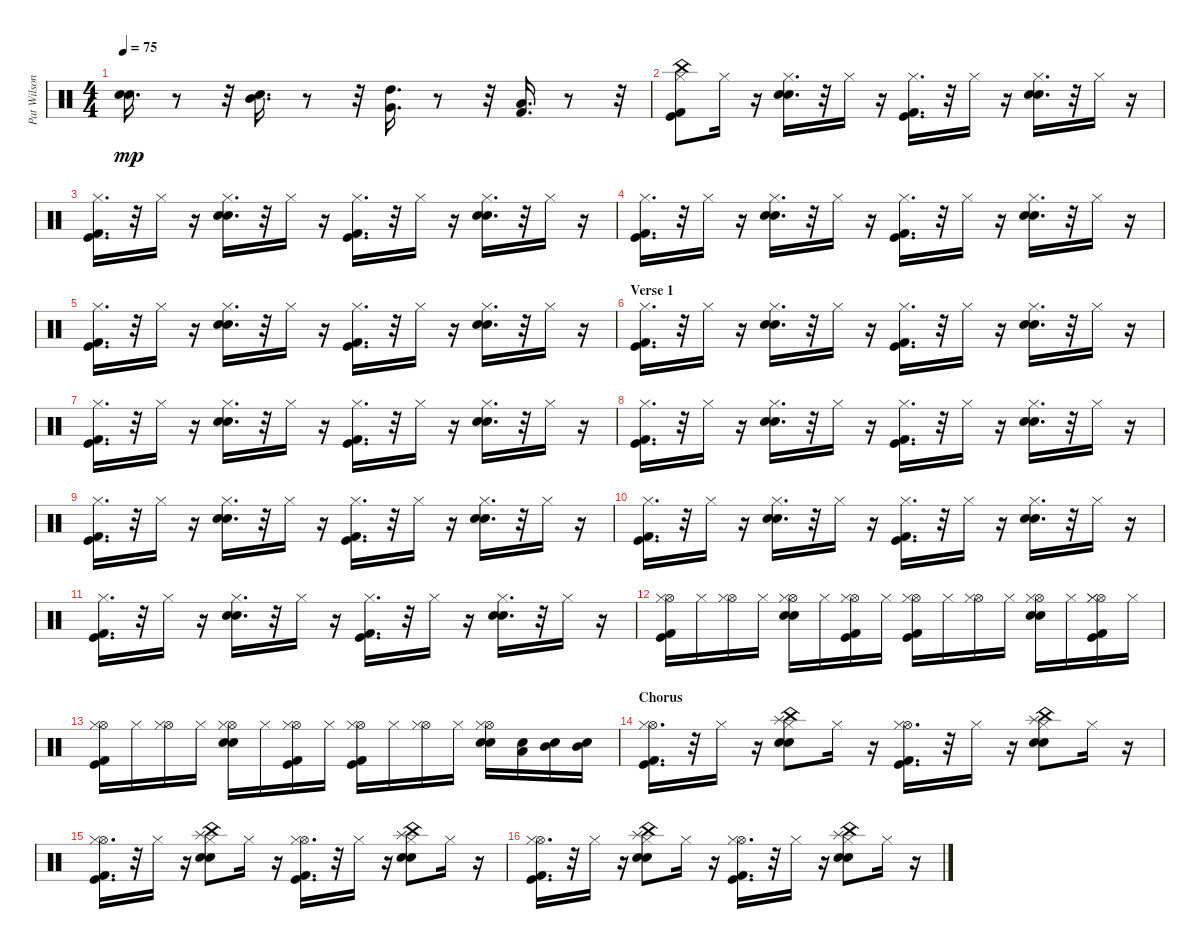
\track ("Pat Wilson - Drums" "Pat Wilson") {instrument percussion}
\staff {score}
\articulation defaults
\ts (4 4)
\tempo 75
\clef neutral
\ks c
("Snare (hit) 2" "Electric Snare (hit)").16{d dy mp} r.8 r.32 ("Mid Tom (hit)" "Electric Snare (hit)").16{d} r.8 r.32 ("Very Low Tom (hit)" "High Tom (hit)").16{d} r.8 r.32 ("Low Tom (hit)" "Kick (hit) 2").16{d} r.8 r.32 |
("China (hit)" "Kick (hit) 2" "Kick (hit)" "Hi-Hat (closed)").8 "Hi-Hat (closed)".16 r.16 ("Snare (hit) 2" "Electric Snare (hit)" "Hi-Hat (closed)").16{d} r.32 "Hi-Hat (closed)".16 r.16 ("Kick (hit) 2" "Kick (hit)" "Hi-Hat (closed)").16{d} r.32 "Hi-Hat (closed)".16 r.16 ("Snare (hit) 2" "Electric Snare (hit)" "Hi-Hat (closed)").16{d} r.32 "Hi-Hat (closed)".16 r.16 |
("Kick (hit) 2" "Kick (hit)" "Hi-Hat (closed)").16{d} r.32 "Hi-Hat (closed)".16 r.16 ("Snare (hit) 2" "Electric Snare (hit)" "Hi-Hat (closed)").16{d} r.32 "Hi-Hat (closed)".16 r.16 ("Kick (hit) 2" "Kick (hit)" "Hi-Hat (closed)").16{d} r.32 "Hi-Hat (closed)".16 r.16 ("Snare (hit) 2" "Electric Snare (hit)" "Hi-Hat (closed)").16{d} r.32 "Hi-Hat (closed)".16 r.16 |
("Kick (hit) 2" "Kick (hit)" "Hi-Hat (closed)").16{d} r.32 "Hi-Hat (closed)".16 r.16 ("Snare (hit) 2" "Electric Snare (hit)" "Hi-Hat (closed)").16{d} r.32 "Hi-Hat (closed)".16 r.16 ("Kick (hit) 2" "Kick (hit)" "Hi-Hat (closed)").16{d} r.32 "Hi-Hat (closed)".16 r.16 ("Snare (hit) 2" "Electric Snare (hit)" "Hi-Hat (closed)").16{d} r.32 "Hi-Hat (closed)".16 r.16 |
("Kick (hit) 2" "Kick (hit)" "Hi-Hat (closed)").16{d} r.32 "Hi-Hat (closed)".16 r.16 ("Snare (hit) 2" "Electric Snare (hit)" "Hi-Hat (closed)").16{d} r.32 "Hi-Hat (closed)".16 r.16 ("Kick (hit) 2" "Kick (hit)" "Hi-Hat (closed)").16{d} r.32 "Hi-Hat (closed)".16 r.16 ("Snare (hit) 2" "Electric Snare (hit)" "Hi-Hat (closed)").16{d} r.32 "Hi-Hat (closed)".16 r.16 |
\section ("" "Verse 1")
("Kick (hit) 2" "Kick (hit)" "Hi-Hat (closed)").16{d} r.32 "Hi-Hat (closed)".16 r.16 ("Snare (hit) 2" "Electric Snare (hit)" "Hi-Hat (closed)").16{d} r.32 "Hi-Hat (closed)".16 r.16 ("Kick (hit) 2" "Kick (hit)" "Hi-Hat (closed)").16{d} r.32 "Hi-Hat (closed)".16 r.16 ("Snare (hit) 2" "Electric Snare (hit)" "Hi-Hat (closed)").16{d} r.32 "Hi-Hat (closed)".16 r.16 |
("Kick (hit) 2" "Kick (hit)" "Hi-Hat (closed)").16{d} r.32 "Hi-Hat (closed)".16 r.16 ("Snare (hit) 2" "Electric Snare (hit)" "Hi-Hat (closed)").16{d} r.32 "Hi-Hat (closed)".16 r.16 ("Kick (hit) 2" "Kick (hit)" "Hi-Hat (closed)").16{d} r.32 "Hi-Hat (closed)".16 r.16 ("Snare (hit) 2" "Electric Snare (hit)" "Hi-Hat (closed)").16{d} r.32 "Hi-Hat (closed)".16 r.16 |
("Kick (hit) 2" "Kick (hit)" "Hi-Hat (closed)").16{d} r.32 "Hi-Hat (closed)".16 r.16 ("Snare (hit) 2" "Electric Snare (hit)" "Hi-Hat (closed)").16{d} r.32 "Hi-Hat (closed)".16 r.16 ("Kick (hit) 2" "Kick (hit)" "Hi-Hat (closed)").16{d} r.32 "Hi-Hat (closed)".16 r.16 ("Snare (hit) 2" "Electric Snare (hit)" "Hi-Hat (closed)").16{d} r.32 "Hi-Hat (closed)".16 r.16 |
("Kick (hit) 2" "Kick (hit)" "Hi-Hat (closed)").16{d} r.32 "Hi-Hat (closed)".16 r.16 ("Snare (hit) 2" "Electric Snare (hit)" "Hi-Hat (closed)").16{d} r.32 "Hi-Hat (closed)".16 r.16 ("Kick (hit) 2" "Kick (hit)" "Hi-Hat (closed)").16{d} r.32 "Hi-Hat (closed)".16 r.16 ("Snare (hit) 2" "Electric Snare (hit)" "Hi-Hat (closed)").16{d} r.32 "Hi-Hat (closed)".16 r.16 |
("Kick (hit) 2" "Kick (hit)" "Hi-Hat (closed)").16{d} r.32 "Hi-Hat (closed)".16 r.16 ("Snare (hit) 2" "Electric Snare (hit)" "Hi-Hat (closed)").16{d} r.32 "Hi-Hat (closed)".16 r.16 ("Kick (hit) 2" "Kick (hit)" "Hi-Hat (closed)").16{d} r.32 "Hi-Hat (closed)".16 r.16 ("Snare (hit) 2" "Electric Snare (hit)" "Hi-Hat (closed)").16{d} r.32 "Hi-Hat (closed)".16 r.16 |
("Kick (hit) 2" "Kick (hit)" "Hi-Hat (closed)").16{d} r.32 "Hi-Hat (closed)".16 r.16 ("Snare (hit) 2" "Electric Snare (hit)" "Hi-Hat (closed)").16{d} r.32 "Hi-Hat (closed)".16 r.16 ("Kick (hit) 2" "Kick (hit)" "Hi-Hat (closed)").16{d} r.32 "Hi-Hat (closed)".16 r.16 ("Snare (hit) 2" "Electric Snare (hit)" "Hi-Hat (closed)").16{d} r.32 "Hi-Hat (closed)".16 r.16 |
("Kick (hit) 2" "Kick (hit)" "Hi-Hat (open)" "Hi-Hat (closed)").16 "Hi-Hat (closed)".16 ("Hi-Hat (open)" "Hi-Hat (closed)").16 "Hi-Hat (closed)".16 ("Snare (hit) 2" "Electric Snare (hit)" "Hi-Hat (open)" "Hi-Hat (closed)").16 "Hi-Hat (closed)".16 ("Kick (hit) 2" "Kick (hit)" "Hi-Hat (open)" "Hi-Hat (closed)").16 "Hi-Hat (closed)".16 ("Kick (hit) 2" "Kick (hit)" "Hi-Hat (open)" "Hi-Hat (closed)").16 "Hi-Hat (closed)".16 ("Hi-Hat (open)" "Hi-Hat (closed)").16 "Hi-Hat (closed)".16 ("Snare (hit) 2" "Electric Snare (hit)" "Hi-Hat (open)" "Hi-Hat (closed)").16 "Hi-Hat (closed)".16 ("Kick (hit) 2" "Kick (hit)" "Hi-Hat (open)" "Hi-Hat (closed)" "Hi-Hat (closed)").16 "Hi-Hat (closed)".16 |
("Kick (hit) 2" "Kick (hit)" "Hi-Hat (open)" "Hi-Hat (closed)").16 "Hi-Hat (closed)".16 ("Hi-Hat (open)" "Hi-Hat (closed)").16 "Hi-Hat (closed)".16 ("Snare (hit) 2" "Electric Snare (hit)" "Hi-Hat (open)" "Hi-Hat (closed)").16 "Hi-Hat (closed)".16 ("Kick (hit) 2" "Kick (hit)" "Hi-Hat (open)" "Hi-Hat (closed)").16 "Hi-Hat (closed)".16 ("Kick (hit) 2" "Kick (hit)" "Hi-Hat (open)" "Hi-Hat (closed)").16 "Hi-Hat (closed)".16 ("Hi-Hat (open)" "Hi-Hat (closed)").16 "Hi-Hat (closed)".16 ("Electric Snare (hit)" "Snare (hit) 2" "Hi-Hat (open)" "Hi-Hat (closed)").16 ("Low Tom (hit)" "Electric Snare (hit)").16 ("Mid Tom (hit)" "Electric Snare (hit)").16 ("Mid Tom (hit)" "Electric Snare (hit)").16 |
\section ("" "Chorus")
("Hi-Hat (open)" "Kick (hit) 2" "Kick (hit)" "Hi-Hat (closed)").16{d} r.32 "Hi-Hat (closed)".16 r.16 ("Splash (hit)" "China (hit)" "Snare (hit) 2" "Electric Snare (hit)" "Hi-Hat (closed)").8 "Hi-Hat (closed)".16 r.16 ("Hi-Hat (open)" "Kick (hit) 2" "Kick (hit)" "Hi-Hat (closed)").16{d} r.32 "Hi-Hat (closed)".16 r.16 ("Splash (hit)" "China (hit)" "Snare (hit) 2" "Electric Snare (hit)" "Hi-Hat (closed)").8 "Hi-Hat (closed)".16 r.16 |
("Hi-Hat (open)" "Kick (hit) 2" "Kick (hit)" "Hi-Hat (closed)").16{d} r.32 "Hi-Hat (closed)".16 r.16 ("Splash (hit)" "China (hit)" "Snare (hit) 2" "Electric Snare (hit)" "Hi-Hat (closed)").8 "Hi-Hat (closed)".16 r.16 ("Hi-Hat (open)" "Kick (hit) 2" "Kick (hit)" "Hi-Hat (closed)").16{d} r.32 "Hi-Hat (closed)".16 r.16 ("Splash (hit)" "China (hit)" "Snare (hit) 2" "Electric Snare (hit)" "Hi-Hat (closed)").8 "Hi-Hat (closed)".16 r.16 |
("Hi-Hat (open)" "Kick (hit) 2" "Kick (hit)" "Hi-Hat (closed)").16{d} r.32 "Hi-Hat (closed)".16 r.16 ("Splash (hit)" "China (hit)" "Snare (hit) 2" "Electric Snare (hit)" "Hi-Hat (closed)").8 "Hi-Hat (closed)".16 r.16 ("Hi-Hat (open)" "Kick (hit) 2" "Kick (hit)" "Hi-Hat (closed)").16{d} r.32 "Hi-Hat (closed)".16 r.16 ("Splash (hit)" "China (hit)" "Snare (hit) 2" "Electric Snare (hit)" "Hi-Hat (closed)").8 "Hi-Hat (closed)".16 r.16
